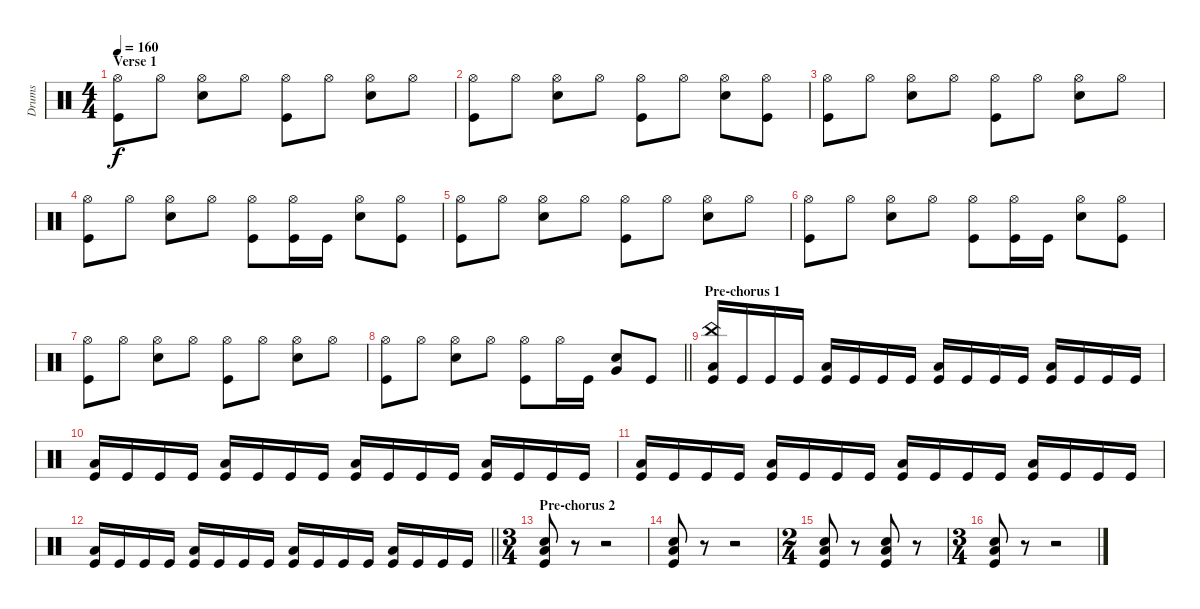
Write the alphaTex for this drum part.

\track ("Drums" "Drums") {instrument percussion}
\staff {score}
\articulation defaults
\ts (4 4)
\section ("" "Verse 1")
\tempo 160
\clef neutral
\ks c
("Kick (hit)" "Hi-Hat (open)").8{dy f} "Hi-Hat (open)".8 ("Snare (hit) 2" "Hi-Hat (open)").8 "Hi-Hat (open)".8 ("Kick (hit)" "Hi-Hat (open)").8 "Hi-Hat (open)".8 ("Snare (hit) 2" "Hi-Hat (open)").8 "Hi-Hat (open)".8 |
("Kick (hit)" "Hi-Hat (open)").8 "Hi-Hat (open)".8 ("Snare (hit) 2" "Hi-Hat (open)").8 "Hi-Hat (open)".8 ("Kick (hit)" "Hi-Hat (open)").8 "Hi-Hat (open)".8 ("Snare (hit) 2" "Hi-Hat (open)").8 ("Hi-Hat (open)" "Kick (hit)").8 |
("Kick (hit)" "Hi-Hat (open)").8 "Hi-Hat (open)".8 ("Snare (hit) 2" "Hi-Hat (open)").8 "Hi-Hat (open)".8 ("Kick (hit)" "Hi-Hat (open)").8 "Hi-Hat (open)".8 ("Snare (hit) 2" "Hi-Hat (open)").8 "Hi-Hat (open)".8 |
("Kick (hit)" "Hi-Hat (open)").8 "Hi-Hat (open)".8 ("Snare (hit) 2" "Hi-Hat (open)").8 "Hi-Hat (open)".8 ("Kick (hit)" "Hi-Hat (open)").8 ("Hi-Hat (open)" "Kick (hit)").16 "Kick (hit)".16 ("Snare (hit) 2" "Hi-Hat (open)").8 ("Kick (hit)" "Hi-Hat (open)").8 |
("Kick (hit)" "Hi-Hat (open)").8 "Hi-Hat (open)".8 ("Snare (hit) 2" "Hi-Hat (open)").8 "Hi-Hat (open)".8 ("Kick (hit)" "Hi-Hat (open)").8 "Hi-Hat (open)".8 ("Snare (hit) 2" "Hi-Hat (open)").8 "Hi-Hat (open)".8 |
("Kick (hit)" "Hi-Hat (open)").8 "Hi-Hat (open)".8 ("Snare (hit) 2" "Hi-Hat (open)").8 "Hi-Hat (open)".8 ("Kick (hit)" "Hi-Hat (open)").8 ("Hi-Hat (open)" "Kick (hit)").16 "Kick (hit)".16 ("Snare (hit) 2" "Hi-Hat (open)").8 ("Kick (hit)" "Hi-Hat (open)").8 |
("Kick (hit)" "Hi-Hat (open)").8 "Hi-Hat (open)".8 ("Snare (hit) 2" "Hi-Hat (open)").8 "Hi-Hat (open)".8 ("Kick (hit)" "Hi-Hat (open)").8 "Hi-Hat (open)".8 ("Snare (hit) 2" "Hi-Hat (open)").8 "Hi-Hat (open)".8 |
\barLineRight lightlight
("Kick (hit)" "Hi-Hat (open)").8 "Hi-Hat (open)".8 ("Snare (hit) 2" "Hi-Hat (open)").8 "Hi-Hat (open)".8 ("Kick (hit)" "Hi-Hat (open)").8 "Hi-Hat (open)".16 "Kick (hit)".16 ("Snare (hit) 2" "Very Low Tom (hit)").8 "Kick (hit)".8 |
\section ("" "Pre-chorus 1")
("Kick (hit)" "China (hit)" "Low Floor Tom (hit)").16 "Kick (hit)".16 "Kick (hit)".16 "Kick (hit)".16 ("Kick (hit)" "Low Floor Tom (hit)").16 "Kick (hit)".16 "Kick (hit)".16 "Kick (hit)".16 ("Kick (hit)" "Low Floor Tom (hit)").16 "Kick (hit)".16 "Kick (hit)".16 "Kick (hit)".16 ("Kick (hit)" "Low Floor Tom (hit)").16 "Kick (hit)".16 "Kick (hit)".16 "Kick (hit)".16 |
("Kick (hit)" "Low Floor Tom (hit)").16 "Kick (hit)".16 "Kick (hit)".16 "Kick (hit)".16 ("Kick (hit)" "Low Floor Tom (hit)").16 "Kick (hit)".16 "Kick (hit)".16 "Kick (hit)".16 ("Kick (hit)" "Low Floor Tom (hit)").16 "Kick (hit)".16 "Kick (hit)".16 "Kick (hit)".16 ("Kick (hit)" "Low Floor Tom (hit)").16 "Kick (hit)".16 "Kick (hit)".16 "Kick (hit)".16 |
("Kick (hit)" "Low Floor Tom (hit)").16 "Kick (hit)".16 "Kick (hit)".16 "Kick (hit)".16 ("Kick (hit)" "Low Floor Tom (hit)").16 "Kick (hit)".16 "Kick (hit)".16 "Kick (hit)".16 ("Kick (hit)" "Low Floor Tom (hit)").16 "Kick (hit)".16 "Kick (hit)".16 "Kick (hit)".16 ("Kick (hit)" "Low Floor Tom (hit)").16 "Kick (hit)".16 "Kick (hit)".16 "Kick (hit)".16 |
\barLineRight lightlight
("Kick (hit)" "Low Floor Tom (hit)").16 "Kick (hit)".16 "Kick (hit)".16 "Kick (hit)".16 ("Kick (hit)" "Low Floor Tom (hit)").16 "Kick (hit)".16 "Kick (hit)".16 "Kick (hit)".16 ("Kick (hit)" "Low Floor Tom (hit)").16 "Kick (hit)".16 "Kick (hit)".16 "Kick (hit)".16 ("Kick (hit)" "Low Floor Tom (hit)").16 "Kick (hit)".16 "Kick (hit)".16 "Kick (hit)".16 |
\ts (3 4)
\section ("" "Pre-chorus 2")
("Snare (hit) 2" "Kick (hit)" "Low Floor Tom (hit)").8 r.8 r.2 |
("Snare (hit) 2" "Kick (hit)" "Low Floor Tom (hit)").8 r.8 r.2 |
\ts (2 4)
("Snare (hit) 2" "Kick (hit)" "Low Floor Tom (hit)").8 r.8 ("Snare (hit) 2" "Kick (hit)" "Low Floor Tom (hit)").8 r.8 |
\ts (3 4)
("Snare (hit) 2" "Kick (hit)" "Low Floor Tom (hit)").8 r.8 r.2
